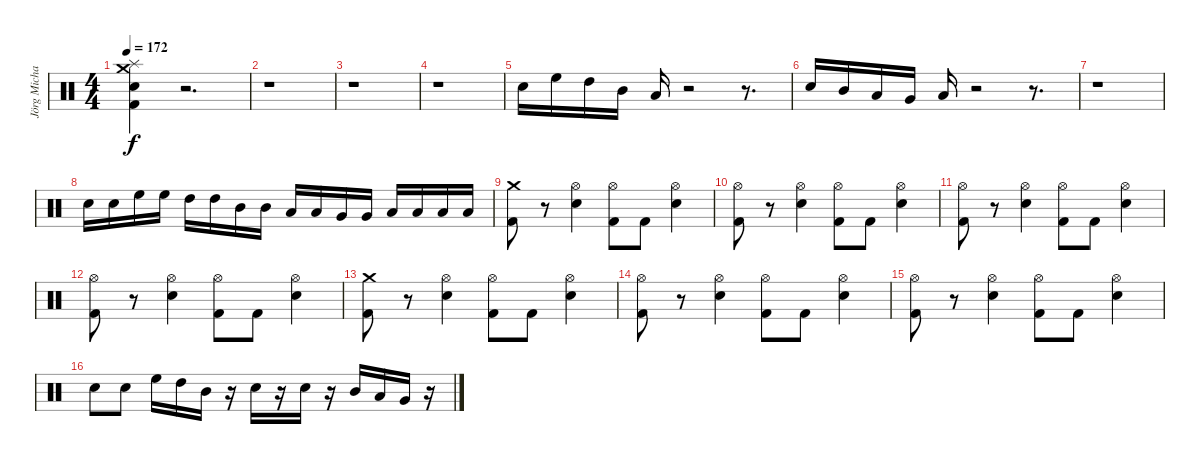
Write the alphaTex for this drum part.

\track ("Jörg Michael" "Jörg Micha") {instrument percussion}
\staff {score}
\articulation defaults
\ts (4 4)
\tempo 172
\clef neutral
\ks c
("Splash (hit)" "Crash medium (hit)" "Electric Snare (hit)" "Kick (hit) 2").4{dy f} r.2{d} |
r.1 |
r.1 |
r.1 |
"Electric Snare (hit)".16 "High Floor Tom (hit)".16 "High Tom (hit)".16 "Mid Tom (hit)".16 "Low Tom (hit)".16 r.2 r.8{d} |
"Electric Snare (hit)".16 "Mid Tom (hit)".16 "Low Tom (hit)".16 "Very Low Tom (hit)".16 "Low Floor Tom (hit)".16 r.2 r.8{d} |
r.1 |
"Electric Snare (hit)".16 "Electric Snare (hit)".16 "High Floor Tom (hit)".16 "High Floor Tom (hit)".16 "High Tom (hit)".16 "High Tom (hit)".16 "Mid Tom (hit)".16 "Mid Tom (hit)".16 "Low Tom (hit)".16 "Low Tom (hit)".16 "Very Low Tom (hit)".16 "Very Low Tom (hit)".16 "Low Floor Tom (hit)".16 "Low Floor Tom (hit)".16 "Low Floor Tom (hit)".16 "Low Floor Tom (hit)".16 |
("Kick (hit) 2" "Crash medium (hit)").8 r.8 ("Hi-Hat (open)" "Electric Snare (hit)").4 ("Hi-Hat (open)" "Kick (hit) 2").8 "Kick (hit) 2".8 ("Hi-Hat (open)" "Electric Snare (hit)").4 |
("Hi-Hat (open)" "Kick (hit) 2").8 r.8 ("Hi-Hat (open)" "Electric Snare (hit)").4 ("Hi-Hat (open)" "Kick (hit) 2").8 "Kick (hit) 2".8 ("Hi-Hat (open)" "Electric Snare (hit)").4 |
("Hi-Hat (open)" "Kick (hit) 2").8 r.8 ("Hi-Hat (open)" "Electric Snare (hit)").4 ("Hi-Hat (open)" "Kick (hit) 2").8 "Kick (hit) 2".8 ("Hi-Hat (open)" "Electric Snare (hit)").4 |
("Hi-Hat (open)" "Kick (hit) 2").8 r.8 ("Hi-Hat (open)" "Electric Snare (hit)").4 ("Hi-Hat (open)" "Kick (hit) 2").8 "Kick (hit) 2".8 ("Hi-Hat (open)" "Electric Snare (hit)").4 |
("Kick (hit) 2" "Crash medium (hit)").8 r.8 ("Hi-Hat (open)" "Electric Snare (hit)").4 ("Hi-Hat (open)" "Kick (hit) 2").8 "Kick (hit) 2".8 ("Hi-Hat (open)" "Electric Snare (hit)").4 |
("Hi-Hat (open)" "Kick (hit) 2").8 r.8 ("Hi-Hat (open)" "Electric Snare (hit)").4 ("Hi-Hat (open)" "Kick (hit) 2").8 "Kick (hit) 2".8 ("Hi-Hat (open)" "Electric Snare (hit)").4 |
("Hi-Hat (open)" "Kick (hit) 2").8 r.8 ("Hi-Hat (open)" "Electric Snare (hit)").4 ("Hi-Hat (open)" "Kick (hit) 2").8 "Kick (hit) 2".8 ("Electric Snare (hit)" "Hi-Hat (open)").4 |
"Electric Snare (hit)".8 "Electric Snare (hit)".8 "High Floor Tom (hit)".16 "High Tom (hit)".16 "Mid Tom (hit)".16 r.16 "Electric Snare (hit)".16 r.16 "Electric Snare (hit)".16 r.16 "Mid Tom (hit)".16 "Low Tom (hit)".16 "Very Low Tom (hit)".16 r.16
